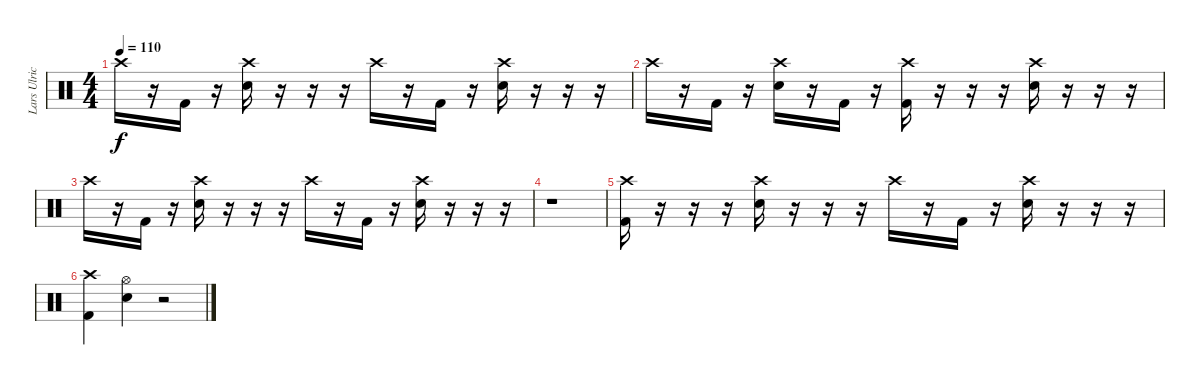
\track ("Lars Ulrich - Drums" "Lars Ulric") {instrument percussion}
\staff {score}
\articulation defaults
\ts (4 4)
\tempo 110
\clef neutral
\ks c "Crash high (hit)".16{dy f}
r.16 "Kick (hit) 2".16 r.16 ("Crash high (hit)" "Snare (hit) 2").16 r.16 r.16 r.16 "Crash high (hit)".16 r.16 "Kick (hit) 2".16 r.16 ("Crash high (hit)" "Snare (hit) 2").16 r.16 r.16 r.16 |
"Crash high (hit)".16 r.16 "Kick (hit) 2".16 r.16 ("Crash high (hit)" "Snare (hit) 2").16 r.16 "Kick (hit) 2".16 r.16 ("Crash high (hit)" "Kick (hit) 2").16 r.16 r.16 r.16 ("Crash high (hit)" "Snare (hit) 2").16 r.16 r.16 r.16 |
"Crash high (hit)".16 r.16 "Kick (hit) 2".16 r.16 ("Crash high (hit)" "Snare (hit) 2").16 r.16 r.16 r.16 "Crash high (hit)".16 r.16 "Kick (hit) 2".16 r.16 ("Crash high (hit)" "Snare (hit) 2").16 r.16 r.16 r.16 |
r.1 |
("Crash high (hit)" "Kick (hit) 2").16 r.16 r.16 r.16 ("Crash high (hit)" "Snare (hit) 2").16 r.16 r.16 r.16 "Crash high (hit)".16 r.16 "Kick (hit) 2".16 r.16 ("Crash high (hit)" "Snare (hit) 2").16 r.16 r.16 r.16 |
("Crash high (hit)" "Kick (hit) 2").4 ("Hi-Hat (open)" "Snare (hit) 2").4 r.2
